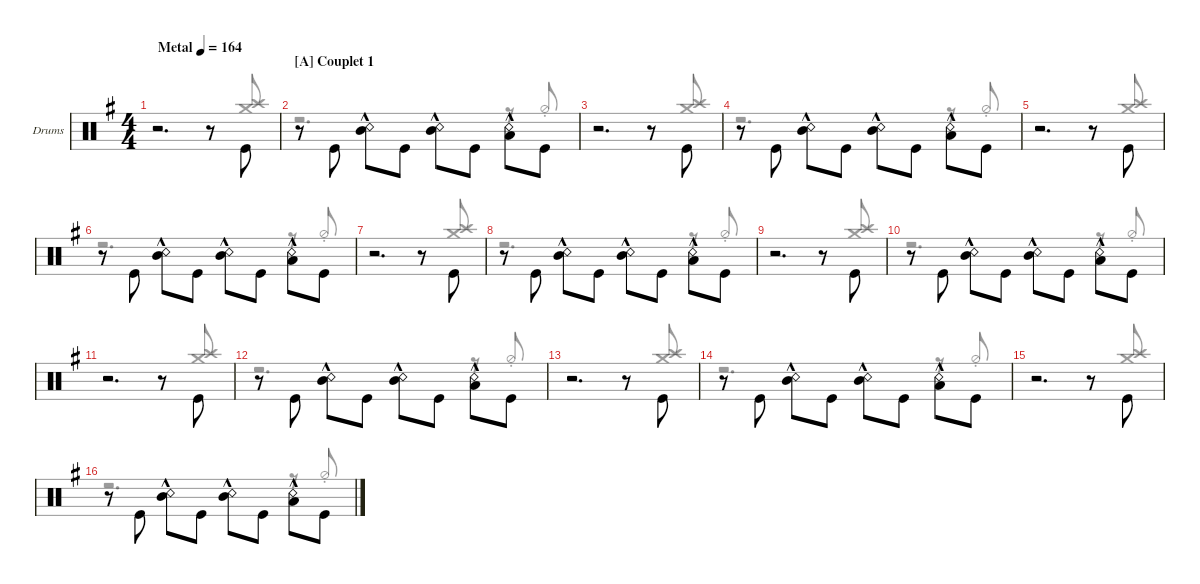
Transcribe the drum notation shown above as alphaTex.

\defaultSystemsLayout 4
\hideDynamics
\bracketExtendMode groupsimilarinstruments
\firstSystemTrackNameOrientation horizontal
\otherSystemsTrackNameOrientation horizontal
\track ("Drumkit" "Drums") {multiBarRest instrument percussion}
\staff {score}
\articulation defaults
\voice
\ts (4 4)
\tempo (164 "Metal")
\clef neutral
\ks eminor
r.2{d dy ff} r.8 "Kick (hit)".8{beam invert} |
\section ("A" "Couplet 1")
r.8 "Kick (hit)".8{beam invert} ("Snare (rim shot)" "Mid Tom (hit)"{hac}).8{beam invert} "Kick (hit)".8 ("Snare (rim shot)" "Mid Tom (hit)"{hac}).8{beam invert} "Kick (hit)".8 ("Snare (rim shot)" "Low Tom (hit)"{hac}).8{beam invert} "Kick (hit)".8 |
r.2{d} r.8 "Kick (hit)".8{beam invert} |
r.8 "Kick (hit)".8{beam invert} ("Snare (rim shot)" "Mid Tom (hit)"{hac}).8{beam invert} "Kick (hit)".8 ("Snare (rim shot)" "Mid Tom (hit)"{hac}).8{beam invert} "Kick (hit)".8 ("Snare (rim shot)" "Low Tom (hit)"{hac}).8{beam invert} "Kick (hit)".8 |
r.2{d} r.8 "Kick (hit)".8{beam invert} |
r.8 "Kick (hit)".8{beam invert} ("Snare (rim shot)" "Mid Tom (hit)"{hac}).8{beam invert} "Kick (hit)".8 ("Snare (rim shot)" "Mid Tom (hit)"{hac}).8{beam invert} "Kick (hit)".8 ("Snare (rim shot)" "Low Tom (hit)"{hac}).8{beam invert} "Kick (hit)".8 |
r.2{d} r.8 "Kick (hit)".8{beam invert} |
r.8 "Kick (hit)".8{beam invert} ("Snare (rim shot)" "Mid Tom (hit)"{hac}).8{beam invert} "Kick (hit)".8 ("Snare (rim shot)" "Mid Tom (hit)"{hac}).8{beam invert} "Kick (hit)".8 ("Snare (rim shot)" "Low Tom (hit)"{hac}).8{beam invert} "Kick (hit)".8 |
r.2{d} r.8 "Kick (hit)".8{beam invert} |
r.8 "Kick (hit)".8{beam invert} ("Snare (rim shot)" "Mid Tom (hit)"{hac}).8{beam invert} "Kick (hit)".8 ("Snare (rim shot)" "Mid Tom (hit)"{hac}).8{beam invert} "Kick (hit)".8 ("Snare (rim shot)" "Low Tom (hit)"{hac}).8{beam invert} "Kick (hit)".8 |
r.2{d} r.8 "Kick (hit)".8{beam invert} |
r.8 "Kick (hit)".8{beam invert} ("Snare (rim shot)" "Mid Tom (hit)"{hac}).8{beam invert} "Kick (hit)".8 ("Snare (rim shot)" "Mid Tom (hit)"{hac}).8{beam invert} "Kick (hit)".8 ("Snare (rim shot)" "Low Tom (hit)"{hac}).8{beam invert} "Kick (hit)".8 |
r.2{d} r.8 "Kick (hit)".8{beam invert} |
r.8 "Kick (hit)".8{beam invert} ("Snare (rim shot)" "Mid Tom (hit)"{hac}).8{beam invert} "Kick (hit)".8 ("Snare (rim shot)" "Mid Tom (hit)"{hac}).8{beam invert} "Kick (hit)".8 ("Snare (rim shot)" "Low Tom (hit)"{hac}).8{beam invert} "Kick (hit)".8 |
r.2{d} r.8 "Kick (hit)".8{beam invert} |
r.8 "Kick (hit)".8{beam invert} ("Snare (rim shot)" "Mid Tom (hit)"{hac}).8{beam invert} "Kick (hit)".8 ("Snare (rim shot)" "Mid Tom (hit)"{hac}).8{beam invert} "Kick (hit)".8 ("Snare (rim shot)" "Low Tom (hit)"{hac}).8{beam invert} "Kick (hit)".8
\voice
\clef neutral
\ottava regular
\simile none
\ks eminor
r.2{d dy f} r.8 ("Crash high (hit)" "Crash medium (hit)").8{beam invert} |
r.2{d} r.8 "Hi-Hat (half)"{st}.8{beam invert} |
r.2{d} r.8 ("Crash high (hit)" "Crash medium (hit)").8{beam invert} |
r.2{d} r.8 "Hi-Hat (half)"{st}.8{beam invert} |
r.2{d} r.8 ("Crash high (hit)" "Crash medium (hit)").8{beam invert} |
r.2{d} r.8 "Hi-Hat (half)"{st}.8{beam invert} |
r.2{d} r.8 ("Crash high (hit)" "Crash medium (hit)").8{beam invert} |
r.2{d} r.8 "Hi-Hat (half)"{st}.8{beam invert} |
r.2{d} r.8 ("Crash high (hit)" "Crash medium (hit)").8{beam invert} |
r.2{d} r.8 "Hi-Hat (half)"{st}.8{beam invert} |
r.2{d} r.8 ("Crash high (hit)" "Crash medium (hit)").8{beam invert} |
r.2{d} r.8 "Hi-Hat (half)"{st}.8{beam invert} |
r.2{d} r.8 ("Crash high (hit)" "Crash medium (hit)").8{beam invert} |
r.2{d} r.8 "Hi-Hat (half)"{st}.8{beam invert} |
r.2{d} r.8 ("Crash high (hit)" "Crash medium (hit)").8{beam invert} |
r.2{d} r.8 "Hi-Hat (half)"{st}.8{beam invert}
